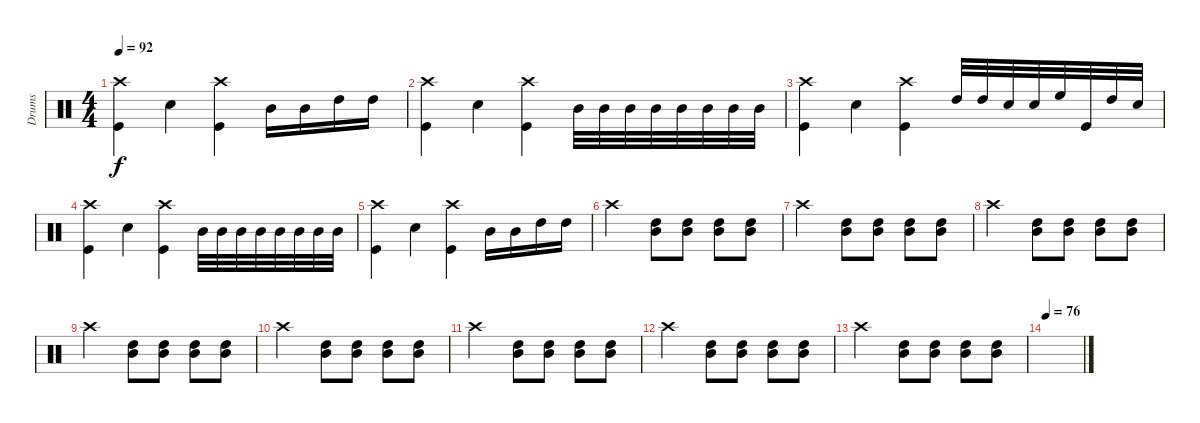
\track ("Drums" "Drums") {instrument percussion}
\staff {score}
\articulation defaults
\ts (4 4)
\tempo 92
\clef neutral
\ks c
("Crash high (hit)" "Kick (hit)").4{dy f} "Electric Snare (hit)".4 ("Crash high (hit)" "Kick (hit)").4 "Mid Tom (hit)".16 "Mid Tom (hit)".16 "High Tom (hit)".16 "High Tom (hit)".16 |
("Crash high (hit)" "Kick (hit)").4 "Electric Snare (hit)".4 ("Crash high (hit)" "Kick (hit)").4 "Mid Tom (hit)".32 "Mid Tom (hit)".32 "Mid Tom (hit)".32 "Mid Tom (hit)".32 "Mid Tom (hit)".32 "Mid Tom (hit)".32 "Mid Tom (hit)".32 "Mid Tom (hit)".32 |
("Crash high (hit)" "Kick (hit)").4 "Electric Snare (hit)".4 ("Crash high (hit)" "Kick (hit)").4 "High Tom (hit)".32 "High Tom (hit)".32 "Electric Snare (hit)".32 "Electric Snare (hit)".32 "High Floor Tom (hit)".32 "Kick (hit)".32 "High Tom (hit)".32 "Electric Snare (hit)".32 |
("Crash high (hit)" "Kick (hit)").4 "Electric Snare (hit)".4 ("Crash high (hit)" "Kick (hit)").4 "Mid Tom (hit)".32 "Mid Tom (hit)".32 "Mid Tom (hit)".32 "Mid Tom (hit)".32 "Mid Tom (hit)".32 "Mid Tom (hit)".32 "Mid Tom (hit)".32 "Mid Tom (hit)".32 |
("Crash high (hit)" "Kick (hit)").4 "Electric Snare (hit)".4 ("Crash high (hit)" "Kick (hit)").4 "Mid Tom (hit)".16 "Mid Tom (hit)".16 "High Tom (hit)".16 "High Tom (hit)".16 |
"Crash high (hit)".2 ("Mid Tom (hit)" "High Tom (hit)").8 ("Mid Tom (hit)" "High Tom (hit)").8 ("Mid Tom (hit)" "High Tom (hit)").8 ("Mid Tom (hit)" "High Tom (hit)").8 |
"Crash high (hit)".2 ("Mid Tom (hit)" "High Tom (hit)").8 ("Mid Tom (hit)" "High Tom (hit)").8 ("Mid Tom (hit)" "High Tom (hit)").8 ("Mid Tom (hit)" "High Tom (hit)").8 |
"Crash high (hit)".2 ("Mid Tom (hit)" "High Tom (hit)").8 ("Mid Tom (hit)" "High Tom (hit)").8 ("Mid Tom (hit)" "High Tom (hit)").8 ("Mid Tom (hit)" "High Tom (hit)").8 |
"Crash high (hit)".2 ("Mid Tom (hit)" "High Tom (hit)").8 ("Mid Tom (hit)" "High Tom (hit)").8 ("Mid Tom (hit)" "High Tom (hit)").8 ("Mid Tom (hit)" "High Tom (hit)").8 |
"Crash high (hit)".2 ("Mid Tom (hit)" "High Tom (hit)").8 ("Mid Tom (hit)" "High Tom (hit)").8 ("Mid Tom (hit)" "High Tom (hit)").8 ("Mid Tom (hit)" "High Tom (hit)").8 |
"Crash high (hit)".2 ("Mid Tom (hit)" "High Tom (hit)").8 ("Mid Tom (hit)" "High Tom (hit)").8 ("Mid Tom (hit)" "High Tom (hit)").8 ("Mid Tom (hit)" "High Tom (hit)").8 |
"Crash high (hit)".2 ("Mid Tom (hit)" "High Tom (hit)").8 ("Mid Tom (hit)" "High Tom (hit)").8 ("Mid Tom (hit)" "High Tom (hit)").8 ("Mid Tom (hit)" "High Tom (hit)").8 |
"Crash high (hit)".2 ("Mid Tom (hit)" "High Tom (hit)").8 ("Mid Tom (hit)" "High Tom (hit)").8 ("Mid Tom (hit)" "High Tom (hit)").8 ("Mid Tom (hit)" "High Tom (hit)").8 |
\tempo 76
